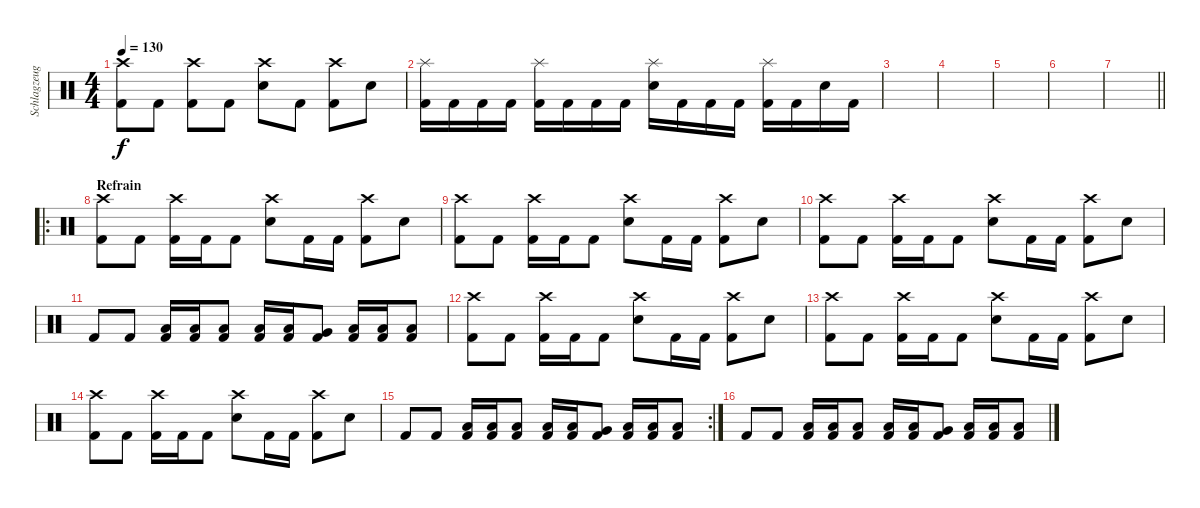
\track ("Schlagzeug" "Schlagzeug") {instrument percussion}
\staff {score}
\articulation defaults
\ts (4 4)
\tempo 130
\clef neutral
\ks c
("Crash high (hit)" "Kick (hit) 2").8{dy f} "Kick (hit) 2".8 ("Crash high (hit)" "Kick (hit) 2").8 "Kick (hit) 2".8 ("Crash high (hit)" "Electric Snare (hit)").8 "Kick (hit) 2".8 ("Crash high (hit)" "Kick (hit) 2").8 "Electric Snare (hit)".8 |
("Splash (hit)" "Kick (hit) 2").16 "Kick (hit) 2".16 "Kick (hit) 2".16 "Kick (hit) 2".16 ("Splash (hit)" "Kick (hit) 2").16 "Kick (hit) 2".16 "Kick (hit) 2".16 "Kick (hit) 2".16 ("Splash (hit)" "Electric Snare (hit)").16 "Kick (hit) 2".16 "Kick (hit) 2".16 "Kick (hit) 2".16 ("Splash (hit)" "Kick (hit) 2").16 "Kick (hit) 2".16 "Electric Snare (hit)".16 "Kick (hit) 2".16 |
|
|
|
|
\barLineRight lightlight
|
\ro
\section ("" "Refrain")
("Crash high (hit)" "Kick (hit) 2").8 "Kick (hit) 2".8 ("Crash high (hit)" "Kick (hit) 2").16 "Kick (hit) 2".16 "Kick (hit) 2".8 ("Crash high (hit)" "Electric Snare (hit)").8 "Kick (hit) 2".16 "Kick (hit) 2".16 ("Crash high (hit)" "Kick (hit) 2").8 "Electric Snare (hit)".8 |
("Crash high (hit)" "Kick (hit) 2").8 "Kick (hit) 2".8 ("Crash high (hit)" "Kick (hit) 2").16 "Kick (hit) 2".16 "Kick (hit) 2".8 ("Crash high (hit)" "Electric Snare (hit)").8 "Kick (hit) 2".16 "Kick (hit) 2".16 ("Crash high (hit)" "Kick (hit) 2").8 "Electric Snare (hit)".8 |
("Crash high (hit)" "Kick (hit) 2").8 "Kick (hit) 2".8 ("Crash high (hit)" "Kick (hit) 2").16 "Kick (hit) 2".16 "Kick (hit) 2".8 ("Crash high (hit)" "Electric Snare (hit)").8 "Kick (hit) 2".16 "Kick (hit) 2".16 ("Crash high (hit)" "Kick (hit) 2").8 "Electric Snare (hit)".8 |
"Kick (hit) 2".8 "Kick (hit) 2".8 ("Low Floor Tom (hit)" "Kick (hit) 2").16 ("Low Floor Tom (hit)" "Kick (hit) 2").16 ("Low Tom (hit)" "Kick (hit) 2").8 ("Low Tom (hit)" "Kick (hit) 2").16 ("Low Tom (hit)" "Kick (hit) 2").16 ("Very Low Tom (hit)" "Kick (hit) 2").8 ("Low Tom (hit)" "Kick (hit) 2").16 ("Low Floor Tom (hit)" "Kick (hit) 2").16 ("Low Tom (hit)" "Kick (hit) 2").8 |
("Crash high (hit)" "Kick (hit) 2").8 "Kick (hit) 2".8 ("Crash high (hit)" "Kick (hit) 2").16 "Kick (hit) 2".16 "Kick (hit) 2".8 ("Crash high (hit)" "Electric Snare (hit)").8 "Kick (hit) 2".16 "Kick (hit) 2".16 ("Crash high (hit)" "Kick (hit) 2").8 "Electric Snare (hit)".8 |
("Crash high (hit)" "Kick (hit) 2").8 "Kick (hit) 2".8 ("Crash high (hit)" "Kick (hit) 2").16 "Kick (hit) 2".16 "Kick (hit) 2".8 ("Crash high (hit)" "Electric Snare (hit)").8 "Kick (hit) 2".16 "Kick (hit) 2".16 ("Crash high (hit)" "Kick (hit) 2").8 "Electric Snare (hit)".8 |
("Crash high (hit)" "Kick (hit) 2").8 "Kick (hit) 2".8 ("Crash high (hit)" "Kick (hit) 2").16 "Kick (hit) 2".16 "Kick (hit) 2".8 ("Crash high (hit)" "Electric Snare (hit)").8 "Kick (hit) 2".16 "Kick (hit) 2".16 ("Crash high (hit)" "Kick (hit) 2").8 "Electric Snare (hit)".8 |
\rc 2 "Kick (hit) 2".8 "Kick (hit) 2".8
("Low Floor Tom (hit)" "Kick (hit) 2").16 ("Low Floor Tom (hit)" "Kick (hit) 2").16 ("Low Tom (hit)" "Kick (hit) 2").8 ("Low Tom (hit)" "Kick (hit) 2").16 ("Low Tom (hit)" "Kick (hit) 2").16 ("Very Low Tom (hit)" "Kick (hit) 2").8 ("Low Tom (hit)" "Kick (hit) 2").16 ("Low Floor Tom (hit)" "Kick (hit) 2").16 ("Low Tom (hit)" "Kick (hit) 2").8 |
"Kick (hit) 2".8 "Kick (hit) 2".8 ("Low Floor Tom (hit)" "Kick (hit) 2").16 ("Low Floor Tom (hit)" "Kick (hit) 2").16 ("Low Tom (hit)" "Kick (hit) 2").8 ("Low Tom (hit)" "Kick (hit) 2").16 ("Low Tom (hit)" "Kick (hit) 2").16 ("Very Low Tom (hit)" "Kick (hit) 2").8 ("Low Tom (hit)" "Kick (hit) 2").16 ("Low Floor Tom (hit)" "Kick (hit) 2").16 ("Low Tom (hit)" "Kick (hit) 2").8
